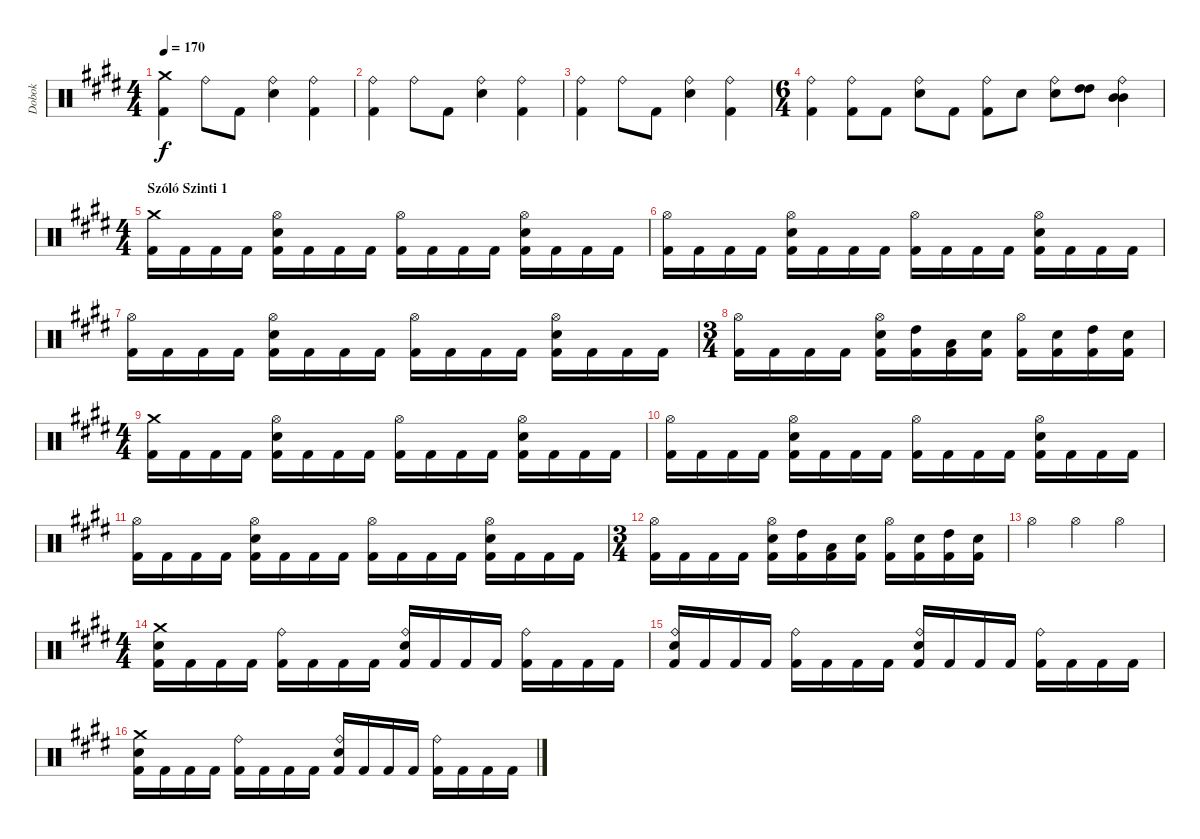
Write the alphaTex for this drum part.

\track ("Dobok" "Dobok") {instrument percussion}
\staff {score}
\articulation defaults
\ts (4 4)
\tempo 170
\clef neutral
\ks c#minor
("Crash medium (hit)" "Kick (hit) 2").4{dy f} "Ride (bell)".8 "Kick (hit) 2".8 ("Ride (bell)" "Snare (hit) 2").4 ("Ride (bell)" "Kick (hit) 2").4 |
("Ride (bell)" "Kick (hit) 2").4 "Ride (bell)".8 "Kick (hit) 2".8 ("Ride (bell)" "Snare (hit) 2").4 ("Ride (bell)" "Kick (hit) 2").4 |
("Ride (bell)" "Kick (hit) 2").4 "Ride (bell)".8 "Kick (hit) 2".8 ("Ride (bell)" "Snare (hit) 2").4 ("Ride (bell)" "Kick (hit) 2").4 |
\ts (6 4)
("Ride (bell)" "Kick (hit) 2").4 ("Ride (bell)" "Kick (hit) 2").8 "Kick (hit) 2".8 ("Ride (bell)" "Snare (hit) 2").8 "Kick (hit) 2".8 ("Ride (bell)" "Kick (hit) 2").8 "Snare (hit) 2".8 ("Ride (bell)" "Snare (hit) 2").8 ("High Tom (hit)" "High Tom (hit)").8 ("Ride (bell)" "Mid Tom (hit)" "Mid Tom (hit)").4 |
\ts (4 4)
\section ("" "Szóló Szinti 1")
("Crash medium (hit)" "Kick (hit) 2").16 "Kick (hit) 2".16 "Kick (hit) 2".16 "Kick (hit) 2".16 ("Hi-Hat (open)" "Snare (hit) 2" "Kick (hit) 2").16 "Kick (hit) 2".16 "Kick (hit) 2".16 "Kick (hit) 2".16 ("Hi-Hat (open)" "Kick (hit) 2").16 "Kick (hit) 2".16 "Kick (hit) 2".16 "Kick (hit) 2".16 ("Hi-Hat (open)" "Snare (hit) 2" "Kick (hit) 2").16 "Kick (hit) 2".16 "Kick (hit) 2".16 "Kick (hit) 2".16 |
("Hi-Hat (open)" "Kick (hit) 2").16 "Kick (hit) 2".16 "Kick (hit) 2".16 "Kick (hit) 2".16 ("Hi-Hat (open)" "Snare (hit) 2" "Kick (hit) 2").16 "Kick (hit) 2".16 "Kick (hit) 2".16 "Kick (hit) 2".16 ("Hi-Hat (open)" "Kick (hit) 2").16 "Kick (hit) 2".16 "Kick (hit) 2".16 "Kick (hit) 2".16 ("Hi-Hat (open)" "Snare (hit) 2" "Kick (hit) 2").16 "Kick (hit) 2".16 "Kick (hit) 2".16 "Kick (hit) 2".16 |
("Hi-Hat (open)" "Kick (hit) 2").16 "Kick (hit) 2".16 "Kick (hit) 2".16 "Kick (hit) 2".16 ("Hi-Hat (open)" "Snare (hit) 2" "Kick (hit) 2").16 "Kick (hit) 2".16 "Kick (hit) 2".16 "Kick (hit) 2".16 ("Hi-Hat (open)" "Kick (hit) 2").16 "Kick (hit) 2".16 "Kick (hit) 2".16 "Kick (hit) 2".16 ("Hi-Hat (open)" "Snare (hit) 2" "Kick (hit) 2").16 "Kick (hit) 2".16 "Kick (hit) 2".16 "Kick (hit) 2".16 |
\ts (3 4)
("Hi-Hat (open)" "Kick (hit) 2").16 "Kick (hit) 2".16 "Kick (hit) 2".16 "Kick (hit) 2".16 ("Hi-Hat (open)" "Snare (hit) 2" "Kick (hit) 2").16 ("High Tom (hit)" "Kick (hit) 2").16 ("Low Tom (hit)" "Kick (hit) 2").16 ("Snare (hit) 2" "Kick (hit) 2").16 ("Hi-Hat (open)" "Kick (hit) 2").16 ("Snare (hit) 2" "Kick (hit) 2").16 ("High Tom (hit)" "Kick (hit) 2").16 ("Snare (hit) 2" "Kick (hit) 2").16 |
\ts (4 4)
("Crash medium (hit)" "Kick (hit) 2").16 "Kick (hit) 2".16 "Kick (hit) 2".16 "Kick (hit) 2".16 ("Hi-Hat (open)" "Snare (hit) 2" "Kick (hit) 2").16 "Kick (hit) 2".16 "Kick (hit) 2".16 "Kick (hit) 2".16 ("Hi-Hat (open)" "Kick (hit) 2").16 "Kick (hit) 2".16 "Kick (hit) 2".16 "Kick (hit) 2".16 ("Hi-Hat (open)" "Snare (hit) 2" "Kick (hit) 2").16 "Kick (hit) 2".16 "Kick (hit) 2".16 "Kick (hit) 2".16 |
("Hi-Hat (open)" "Kick (hit) 2").16 "Kick (hit) 2".16 "Kick (hit) 2".16 "Kick (hit) 2".16 ("Hi-Hat (open)" "Snare (hit) 2" "Kick (hit) 2").16 "Kick (hit) 2".16 "Kick (hit) 2".16 "Kick (hit) 2".16 ("Hi-Hat (open)" "Kick (hit) 2").16 "Kick (hit) 2".16 "Kick (hit) 2".16 "Kick (hit) 2".16 ("Hi-Hat (open)" "Snare (hit) 2" "Kick (hit) 2").16 "Kick (hit) 2".16 "Kick (hit) 2".16 "Kick (hit) 2".16 |
("Hi-Hat (open)" "Kick (hit) 2").16 "Kick (hit) 2".16 "Kick (hit) 2".16 "Kick (hit) 2".16 ("Hi-Hat (open)" "Snare (hit) 2" "Kick (hit) 2").16 "Kick (hit) 2".16 "Kick (hit) 2".16 "Kick (hit) 2".16 ("Hi-Hat (open)" "Kick (hit) 2").16 "Kick (hit) 2".16 "Kick (hit) 2".16 "Kick (hit) 2".16 ("Hi-Hat (open)" "Snare (hit) 2" "Kick (hit) 2").16 "Kick (hit) 2".16 "Kick (hit) 2".16 "Kick (hit) 2".16 |
\ts (3 4)
("Hi-Hat (open)" "Kick (hit) 2").16 "Kick (hit) 2".16 "Kick (hit) 2".16 "Kick (hit) 2".16 ("Hi-Hat (open)" "Snare (hit) 2" "Kick (hit) 2").16 ("High Tom (hit)" "Kick (hit) 2").16 ("Low Tom (hit)" "Kick (hit) 2").16 ("Snare (hit) 2" "Kick (hit) 2").16 ("Hi-Hat (open)" "Kick (hit) 2").16 ("Snare (hit) 2" "Kick (hit) 2").16 ("High Tom (hit)" "Kick (hit) 2").16 ("Snare (hit) 2" "Kick (hit) 2").16 |
"Hi-Hat (open)".4 "Hi-Hat (open)".4 "Hi-Hat (open)".4 |
\ts (4 4)
("Crash medium (hit)" "Snare (hit) 2" "Kick (hit) 2").16 "Kick (hit) 2".16 "Kick (hit) 2".16 "Kick (hit) 2".16 ("Ride (bell)" "Kick (hit) 2").16 "Kick (hit) 2".16 "Kick (hit) 2".16 "Kick (hit) 2".16 ("Ride (bell)" "Snare (hit) 2" "Kick (hit) 2").16 "Kick (hit) 2".16 "Kick (hit) 2".16 "Kick (hit) 2".16 ("Ride (bell)" "Kick (hit) 2").16 "Kick (hit) 2".16 "Kick (hit) 2".16 "Kick (hit) 2".16 |
("Ride (bell)" "Snare (hit) 2" "Kick (hit) 2").16 "Kick (hit) 2".16 "Kick (hit) 2".16 "Kick (hit) 2".16 ("Ride (bell)" "Kick (hit) 2").16 "Kick (hit) 2".16 "Kick (hit) 2".16 "Kick (hit) 2".16 ("Ride (bell)" "Snare (hit) 2" "Kick (hit) 2").16 "Kick (hit) 2".16 "Kick (hit) 2".16 "Kick (hit) 2".16 ("Ride (bell)" "Kick (hit) 2").16 "Kick (hit) 2".16 "Kick (hit) 2".16 "Kick (hit) 2".16 |
("Crash medium (hit)" "Snare (hit) 2" "Kick (hit) 2").16 "Kick (hit) 2".16 "Kick (hit) 2".16 "Kick (hit) 2".16 ("Ride (bell)" "Kick (hit) 2").16 "Kick (hit) 2".16 "Kick (hit) 2".16 "Kick (hit) 2".16 ("Ride (bell)" "Snare (hit) 2" "Kick (hit) 2").16 "Kick (hit) 2".16 "Kick (hit) 2".16 "Kick (hit) 2".16 ("Ride (bell)" "Kick (hit) 2").16 "Kick (hit) 2".16 "Kick (hit) 2".16 "Kick (hit) 2".16
